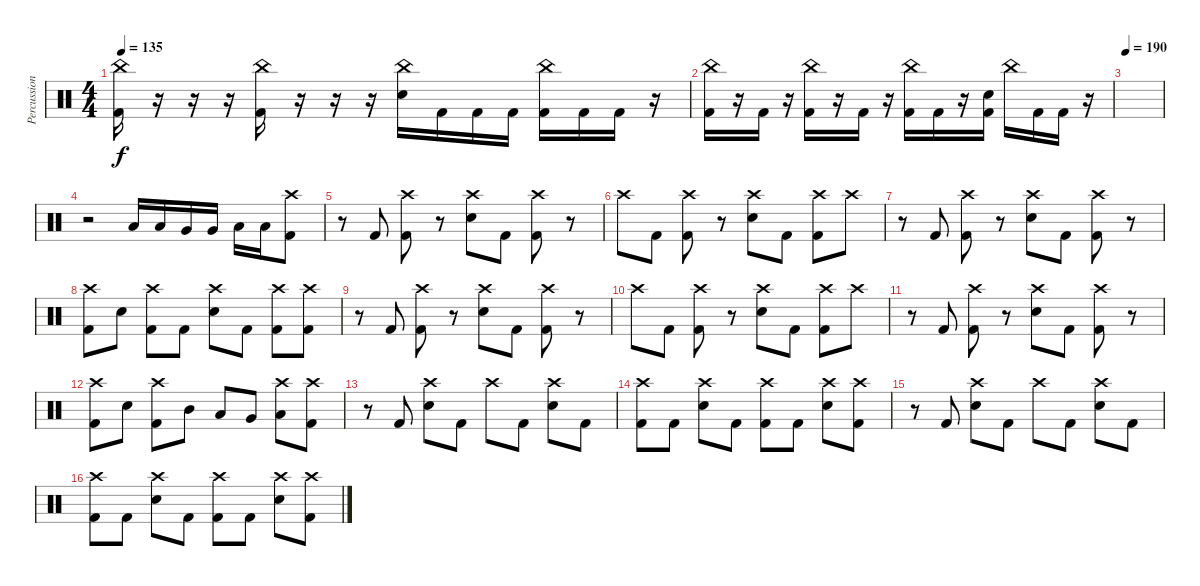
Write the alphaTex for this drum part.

\track ("Percussions" "Percussion") {instrument percussion}
\staff {score}
\articulation defaults
\ts (4 4)
\tempo 135
\clef neutral
\ks c
("China (hit)" "Kick (hit) 2").16{dy f} r.16 r.16 r.16 ("China (hit)" "Kick (hit) 2").16 r.16 r.16 r.16 ("China (hit)" "Electric Snare (hit)").16 "Kick (hit) 2".16 "Kick (hit) 2".16 "Kick (hit) 2".16 ("China (hit)" "Kick (hit) 2").16 "Kick (hit) 2".16 "Kick (hit) 2".16 r.16 |
("China (hit)" "Kick (hit) 2").16 r.16 "Kick (hit) 2".16 r.16 ("China (hit)" "Kick (hit) 2").16 r.16 "Kick (hit) 2".16 r.16 ("China (hit)" "Kick (hit) 2").16 "Kick (hit) 2".16 r.16 ("Electric Snare (hit)" "Kick (hit) 2").16 "China (hit)".16 "Kick (hit) 2".16 "Kick (hit) 2".16 r.16 |
\tempo 190
|
r.2 "Low Tom (hit)".16 "Low Tom (hit)".16 "Very Low Tom (hit)".16 "Very Low Tom (hit)".16 "Low Floor Tom (hit)".16 "Low Floor Tom (hit)".16 ("Crash high (hit)" "Kick (hit) 2").8 |
r.8 "Kick (hit) 2".8 ("Crash high (hit)" "Kick (hit) 2").8 r.8 ("Crash high (hit)" "Electric Snare (hit)").8 "Kick (hit) 2".8 ("Crash high (hit)" "Kick (hit) 2").8 r.8 |
"Crash high (hit)".8 "Kick (hit) 2".8 ("Crash high (hit)" "Kick (hit) 2").8 r.8 ("Crash high (hit)" "Electric Snare (hit)").8 "Kick (hit) 2".8 ("Crash high (hit)" "Kick (hit) 2").8 "Crash high (hit)".8 |
r.8 "Kick (hit) 2".8 ("Crash high (hit)" "Kick (hit) 2").8 r.8 ("Crash high (hit)" "Electric Snare (hit)").8 "Kick (hit) 2".8 ("Crash high (hit)" "Kick (hit) 2").8 r.8 |
("Crash high (hit)" "Kick (hit) 2").8 "Electric Snare (hit)".8 ("Crash high (hit)" "Kick (hit) 2").8 "Kick (hit) 2".8 ("Crash high (hit)" "Electric Snare (hit)").8 "Kick (hit) 2".8 ("Crash high (hit)" "Kick (hit) 2").8 ("Crash high (hit)" "Kick (hit) 2").8 |
r.8 "Kick (hit) 2".8 ("Crash high (hit)" "Kick (hit) 2").8 r.8 ("Crash high (hit)" "Electric Snare (hit)").8 "Kick (hit) 2".8 ("Crash high (hit)" "Kick (hit) 2").8 r.8 |
"Crash high (hit)".8 "Kick (hit) 2".8 ("Crash high (hit)" "Kick (hit) 2").8 r.8 ("Crash high (hit)" "Electric Snare (hit)").8 "Kick (hit) 2".8 ("Crash high (hit)" "Kick (hit) 2").8 "Crash high (hit)".8 |
r.8 "Kick (hit) 2".8 ("Crash high (hit)" "Kick (hit) 2").8 r.8 ("Crash high (hit)" "Electric Snare (hit)").8 "Kick (hit) 2".8 ("Crash high (hit)" "Kick (hit) 2").8 r.8 |
("Crash high (hit)" "Kick (hit) 2").8 "Electric Snare (hit)".8 ("Crash high (hit)" "Kick (hit) 2").8 "Mid Tom (hit)".8 "Low Tom (hit)".8 "Very Low Tom (hit)".8 ("Crash high (hit)" "Low Floor Tom (hit)").8 ("Crash high (hit)" "Kick (hit) 2").8 |
r.8 "Kick (hit) 2".8 ("Crash high (hit)" "Electric Snare (hit)").8 "Kick (hit) 2".8 "Crash high (hit)".8 "Kick (hit) 2".8 ("Crash high (hit)" "Electric Snare (hit)").8 "Kick (hit) 2".8 |
("Crash high (hit)" "Kick (hit) 2").8 "Kick (hit) 2".8 ("Crash high (hit)" "Electric Snare (hit)").8 "Kick (hit) 2".8 ("Crash high (hit)" "Kick (hit) 2").8 "Kick (hit) 2".8 ("Crash high (hit)" "Electric Snare (hit)").8 ("Crash high (hit)" "Kick (hit) 2").8 |
r.8 "Kick (hit) 2".8 ("Crash high (hit)" "Electric Snare (hit)").8 "Kick (hit) 2".8 "Crash high (hit)".8 "Kick (hit) 2".8 ("Crash high (hit)" "Electric Snare (hit)").8 "Kick (hit) 2".8 |
("Crash high (hit)" "Kick (hit) 2").8 "Kick (hit) 2".8 ("Crash high (hit)" "Electric Snare (hit)").8 "Kick (hit) 2".8 ("Crash high (hit)" "Kick (hit) 2").8 "Kick (hit) 2".8 ("Crash high (hit)" "Electric Snare (hit)").8 ("Crash high (hit)" "Kick (hit) 2").8
